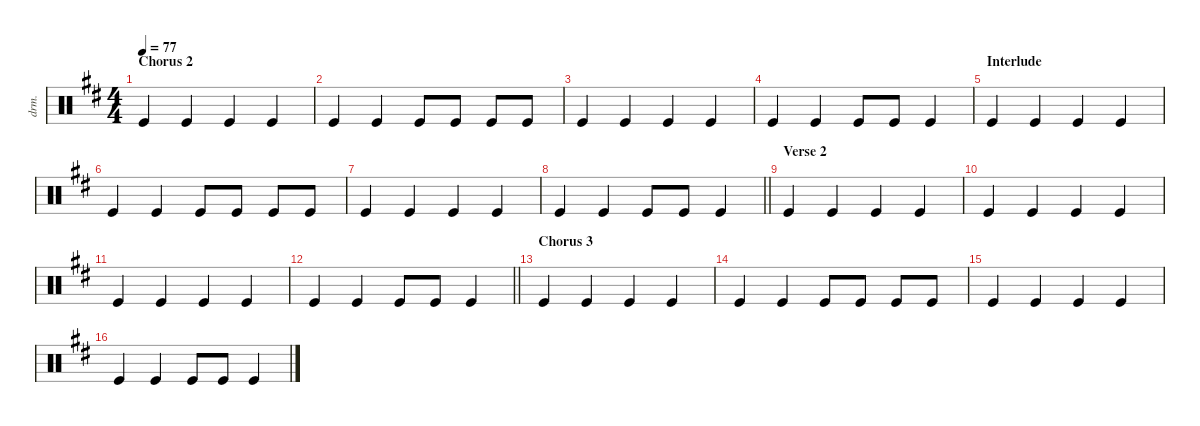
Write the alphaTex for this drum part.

\defaultSystemsLayout 4
\hideDynamics
\bracketExtendMode nobrackets
\otherSystemsTrackNameOrientation horizontal
\track ("Drums" "drm.") {defaultSystemsLayout 8 instrument percussion}
\staff {score}
\articulation defaults
\ts (4 4)
\section ("" "Chorus 2")
\tempo 77
\clef neutral
\ks bminor "Kick (hit)"{acc forcenatural}.4{dy mf} "Kick (hit)"{acc forcenatural}.4 "Kick (hit)"{acc forcenatural}.4 "Kick (hit)"{acc forcenatural}.4
|
"Kick (hit)"{acc forcenatural}.4 "Kick (hit)"{acc forcenatural}.4 "Kick (hit)"{acc forcenatural}.8 "Kick (hit)"{acc forcenatural}.8 "Kick (hit)"{acc forcenatural}.8 "Kick (hit)"{acc forcenatural}.8 |
"Kick (hit)"{acc forcenatural}.4 "Kick (hit)"{acc forcenatural}.4 "Kick (hit)"{acc forcenatural}.4 "Kick (hit)"{acc forcenatural}.4 |
"Kick (hit)"{acc forcenatural}.4 "Kick (hit)"{acc forcenatural}.4 "Kick (hit)"{acc forcenatural}.8 "Kick (hit)"{acc forcenatural}.8 "Kick (hit)"{acc forcenatural}.4 |
\section ("" "Interlude")
"Kick (hit)"{acc forcenatural}.4 "Kick (hit)"{acc forcenatural}.4 "Kick (hit)"{acc forcenatural}.4 "Kick (hit)"{acc forcenatural}.4 |
"Kick (hit)"{acc forcenatural}.4 "Kick (hit)"{acc forcenatural}.4 "Kick (hit)"{acc forcenatural}.8 "Kick (hit)"{acc forcenatural}.8 "Kick (hit)"{acc forcenatural}.8 "Kick (hit)"{acc forcenatural}.8 |
"Kick (hit)"{acc forcenatural}.4 "Kick (hit)"{acc forcenatural}.4 "Kick (hit)"{acc forcenatural}.4 "Kick (hit)"{acc forcenatural}.4 |
\barLineRight lightlight "Kick (hit)"{acc forcenatural}.4 "Kick (hit)"{acc forcenatural}.4 "Kick (hit)"{acc forcenatural}.8 "Kick (hit)"{acc forcenatural}.8 "Kick (hit)"{acc forcenatural}.4
|
\section ("" "Verse 2")
"Kick (hit)"{acc forcenatural}.4 "Kick (hit)"{acc forcenatural}.4 "Kick (hit)"{acc forcenatural}.4 "Kick (hit)"{acc forcenatural}.4 |
"Kick (hit)"{acc forcenatural}.4 "Kick (hit)"{acc forcenatural}.4 "Kick (hit)"{acc forcenatural}.4 "Kick (hit)"{acc forcenatural}.4 |
"Kick (hit)"{acc forcenatural}.4 "Kick (hit)"{acc forcenatural}.4 "Kick (hit)"{acc forcenatural}.4 "Kick (hit)"{acc forcenatural}.4 |
\barLineRight lightlight "Kick (hit)"{acc forcenatural}.4 "Kick (hit)"{acc forcenatural}.4 "Kick (hit)"{acc forcenatural}.8 "Kick (hit)"{acc forcenatural}.8 "Kick (hit)"{acc forcenatural}.4
|
\section ("" "Chorus 3")
"Kick (hit)"{acc forcenatural}.4 "Kick (hit)"{acc forcenatural}.4 "Kick (hit)"{acc forcenatural}.4 "Kick (hit)"{acc forcenatural}.4 |
"Kick (hit)"{acc forcenatural}.4 "Kick (hit)"{acc forcenatural}.4 "Kick (hit)"{acc forcenatural}.8 "Kick (hit)"{acc forcenatural}.8 "Kick (hit)"{acc forcenatural}.8 "Kick (hit)"{acc forcenatural}.8 |
"Kick (hit)"{acc forcenatural}.4 "Kick (hit)"{acc forcenatural}.4 "Kick (hit)"{acc forcenatural}.4 "Kick (hit)"{acc forcenatural}.4 |
"Kick (hit)"{acc forcenatural}.4 "Kick (hit)"{acc forcenatural}.4 "Kick (hit)"{acc forcenatural}.8 "Kick (hit)"{acc forcenatural}.8 "Kick (hit)"{acc forcenatural}.4
